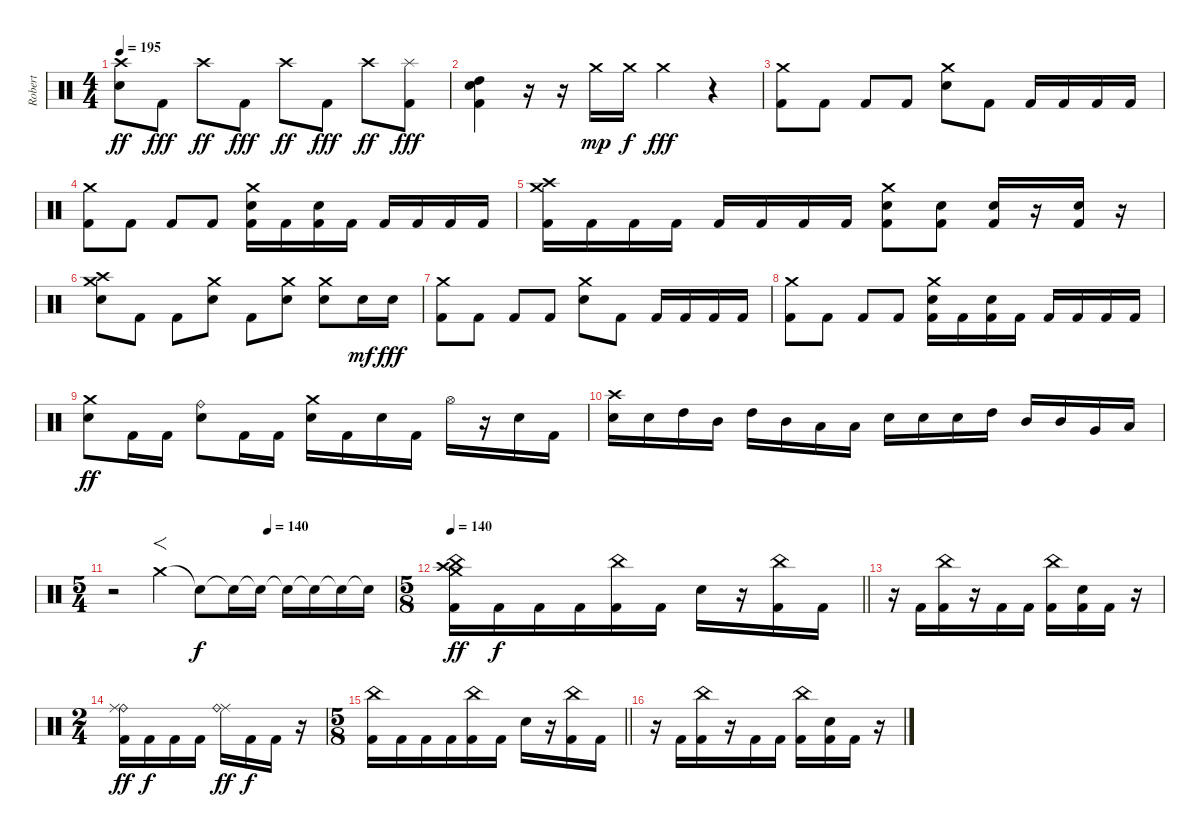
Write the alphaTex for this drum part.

\track ("Robert" "Robert") {instrument percussion}
\staff {score}
\articulation defaults
\ts (4 4)
\tempo 195
\clef neutral
\ks c
("Crash high (hit)" "Electric Snare (hit)").8{dy ff} "Kick (hit) 2".8{dy fff} "Crash high (hit)".8{dy ff} "Kick (hit) 2".8{dy fff} "Crash high (hit)".8{dy ff} "Kick (hit) 2".8{dy fff} "Crash high (hit)".8{dy ff} ("Splash (hit)" "Kick (hit) 2").8{dy fff} |
("Electric Snare (hit)" "High Tom (hit)" "Kick (hit) 2").4 r.16 r.16 "Crash medium (hit)".16{dy mp} "Crash medium (hit)".16{dy f} "Crash medium (hit)".4{dy fff} r.4 |
("Kick (hit) 2" "Crash medium (hit)").8 "Kick (hit) 2".8 "Kick (hit) 2".8 "Kick (hit) 2".8 ("Electric Snare (hit)" "Crash medium (hit)").8 "Kick (hit) 2".8 "Kick (hit) 2".16 "Kick (hit) 2".16 "Kick (hit) 2".16 "Kick (hit) 2".16 |
("Crash medium (hit)" "Kick (hit) 2").8 "Kick (hit) 2".8 "Kick (hit) 2".8 "Kick (hit) 2".8 ("Crash medium (hit)" "Electric Snare (hit)" "Kick (hit) 2").16 "Kick (hit) 2".16 ("Electric Snare (hit)" "Kick (hit) 2").16 "Kick (hit) 2".16 "Kick (hit) 2".16 "Kick (hit) 2".16 "Kick (hit) 2".16 "Kick (hit) 2".16 |
("Crash medium (hit)" "Crash high (hit)" "Kick (hit) 2").16 "Kick (hit) 2".16 "Kick (hit) 2".16 "Kick (hit) 2".16 "Kick (hit) 2".16 "Kick (hit) 2".16 "Kick (hit) 2".16 "Kick (hit) 2".16 ("Crash medium (hit)" "Electric Snare (hit)" "Kick (hit) 2").8 ("Electric Snare (hit)" "Kick (hit) 2").8 ("Electric Snare (hit)" "Kick (hit) 2").16 r.16 ("Electric Snare (hit)" "Kick (hit) 2").16 r.16 |
("Crash high (hit)" "Crash medium (hit)" "Electric Snare (hit)").8 "Kick (hit) 2".8 "Kick (hit) 2".8 ("Crash medium (hit)" "Electric Snare (hit)").8 "Kick (hit) 2".8 ("Crash medium (hit)" "Electric Snare (hit)").8 ("Crash medium (hit)" "Electric Snare (hit)").8 "Electric Snare (hit)".16{dy mf} "Electric Snare (hit)".16{dy fff} |
("Kick (hit) 2" "Crash medium (hit)").8 "Kick (hit) 2".8 "Kick (hit) 2".8 "Kick (hit) 2".8 ("Electric Snare (hit)" "Crash medium (hit)").8 "Kick (hit) 2".8 "Kick (hit) 2".16 "Kick (hit) 2".16 "Kick (hit) 2".16 "Kick (hit) 2".16 |
("Crash medium (hit)" "Kick (hit) 2").8 "Kick (hit) 2".8 "Kick (hit) 2".8 "Kick (hit) 2".8 ("Crash medium (hit)" "Electric Snare (hit)" "Kick (hit) 2").16 "Kick (hit) 2".16 ("Electric Snare (hit)" "Kick (hit) 2").16 "Kick (hit) 2".16 "Kick (hit) 2".16 "Kick (hit) 2".16 "Kick (hit) 2".16 "Kick (hit) 2".16 |
("Electric Snare (hit)" "Crash medium (hit)").8{dy ff} "Kick (hit) 2".16 "Kick (hit) 2".16 ("Electric Snare (hit)" "Ride (bell)").8 "Kick (hit) 2".16 "Kick (hit) 2".16 ("Electric Snare (hit)" "Crash medium (hit)").16 "Kick (hit) 2".16 "Electric Snare (hit)".16 "Kick (hit) 2".16 "Hi-Hat (open)".16 r.16 "Electric Snare (hit)".16 "Kick (hit) 2".16 |
("Electric Snare (hit)" "Crash high (hit)").16 "Electric Snare (hit)".16 "High Tom (hit)".16 "Mid Tom (hit)".16 "High Tom (hit)".16 "Mid Tom (hit)".16 "Low Tom (hit)".16 "Low Tom (hit)".16 "Electric Snare (hit)".16 "Electric Snare (hit)".16 "Electric Snare (hit)".16 "High Tom (hit)".16 "Mid Tom (hit)".16 "Mid Tom (hit)".16 "Very Low Tom (hit)".16 "Low Floor Tom (hit)".16 |
\ts (5 4)
\tempo (140 0.55)
r.2 "Crash medium (hit)".4{f} "Snare (hit)"{t}.8{dy f} "Snare (hit)"{t}.16 "Snare (hit)"{t}.16 "Snare (hit)"{t}.16 "Snare (hit)"{t}.16 "Snare (hit)"{t}.16 "Snare (hit)"{t}.16 |
\ts (5 8)
\tempo 140
\barLineRight lightlight
("China (hit)" "Crash medium (hit)" "Crash high (hit)" "Kick (hit) 2").16{dy ff volume 13} "Kick (hit) 2".16{dy f} "Kick (hit) 2".16 "Kick (hit) 2".16 ("China (hit)" "Kick (hit) 2").16 "Kick (hit) 2".16 "Electric Snare (hit)".16 r.16 ("China (hit)" "Kick (hit) 2").16 "Kick (hit) 2".16 |
r.16 "Kick (hit) 2".16 ("China (hit)" "Kick (hit) 2").16 r.16 "Kick (hit) 2".16 "Kick (hit) 2".16 ("China (hit)" "Kick (hit) 2").16 ("Electric Snare (hit)" "Kick (hit) 2").16 "Kick (hit) 2".16 r.16 |
\ts (2 4)
("Ride (bell)" "Ride (middle)" "Kick (hit) 2").16{dy ff} "Kick (hit) 2".16{dy f} "Kick (hit) 2".16 "Kick (hit) 2".16 ("Ride (middle)" "Ride (bell)").16{dy ff} "Kick (hit) 2".16{dy f} "Kick (hit) 2".16 r.16 |
\ts (5 8)
\barLineRight lightlight
("China (hit)" "Kick (hit) 2").16 "Kick (hit) 2".16 "Kick (hit) 2".16 "Kick (hit) 2".16 ("China (hit)" "Kick (hit) 2").16 "Kick (hit) 2".16 "Electric Snare (hit)".16 r.16 ("China (hit)" "Kick (hit) 2").16 "Kick (hit) 2".16 |
r.16 "Kick (hit) 2".16 ("China (hit)" "Kick (hit) 2").16 r.16 "Kick (hit) 2".16 "Kick (hit) 2".16 ("China (hit)" "Kick (hit) 2").16 ("Electric Snare (hit)" "Kick (hit) 2").16 "Kick (hit) 2".16 r.16
